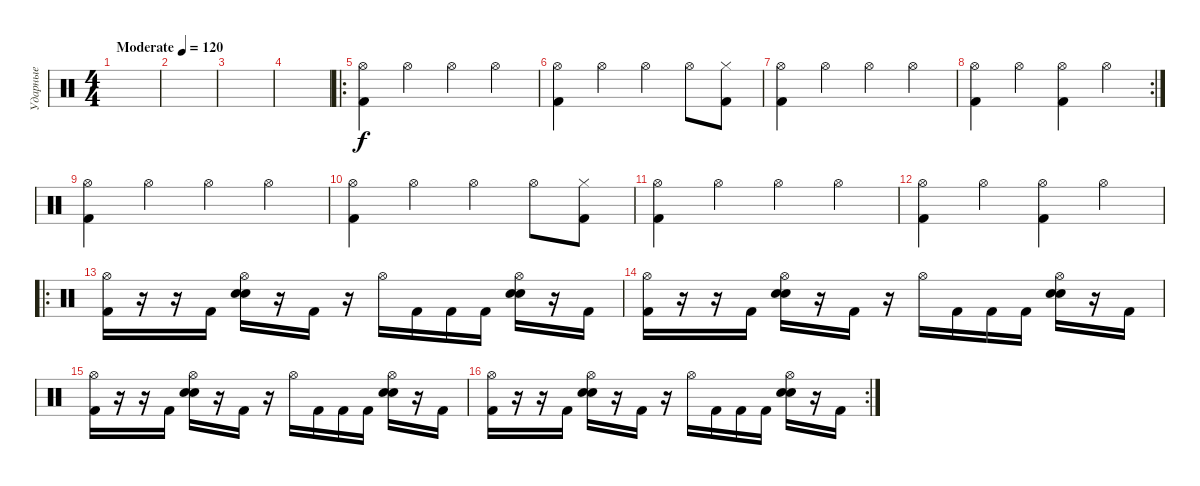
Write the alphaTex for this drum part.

\track ("Ударные" "Ударные") {instrument percussion}
\staff {score}
\articulation defaults
\ts (4 4)
\tempo (120 "Moderate")
\clef neutral
\ks c
|
|
|
|
\ro
("Hi-Hat (open)" "Kick (hit) 2").4 "Hi-Hat (open)".4 "Hi-Hat (open)".4 "Hi-Hat (open)".4 |
("Hi-Hat (open)" "Kick (hit) 2").4 "Hi-Hat (open)".4 "Hi-Hat (open)".4 "Hi-Hat (open)".8 ("Hi-Hat (closed)" "Kick (hit) 2").8 |
("Hi-Hat (open)" "Kick (hit) 2").4 "Hi-Hat (open)".4 "Hi-Hat (open)".4 "Hi-Hat (open)".4 |
\rc 2
("Hi-Hat (open)" "Kick (hit) 2").4 "Hi-Hat (open)".4 ("Hi-Hat (open)" "Kick (hit) 2").4 "Hi-Hat (open)".4 |
("Hi-Hat (open)" "Kick (hit) 2").4 "Hi-Hat (open)".4 "Hi-Hat (open)".4 "Hi-Hat (open)".4 |
("Hi-Hat (open)" "Kick (hit) 2").4 "Hi-Hat (open)".4 "Hi-Hat (open)".4 "Hi-Hat (open)".8 ("Hi-Hat (closed)" "Kick (hit) 2").8 |
("Hi-Hat (open)" "Kick (hit) 2").4 "Hi-Hat (open)".4 "Hi-Hat (open)".4 "Hi-Hat (open)".4 |
("Hi-Hat (open)" "Kick (hit) 2").4 "Hi-Hat (open)".4 ("Hi-Hat (open)" "Kick (hit) 2").4 "Hi-Hat (open)".4 |
\ro
("Hi-Hat (open)" "Kick (hit) 2").16 r.16 r.16 "Kick (hit) 2".16 ("Hi-Hat (open)" "Electric Snare (hit)" "Snare (hit) 2").16 r.16 "Kick (hit) 2".16 r.16 "Hi-Hat (open)".16 "Kick (hit) 2".16 "Kick (hit) 2".16 "Kick (hit) 2".16 ("Hi-Hat (open)" "Electric Snare (hit)" "Snare (hit) 2").16 r.16 "Kick (hit) 2".16 |
("Hi-Hat (open)" "Kick (hit) 2").16 r.16 r.16 "Kick (hit) 2".16 ("Hi-Hat (open)" "Electric Snare (hit)" "Snare (hit) 2").16 r.16 "Kick (hit) 2".16 r.16 "Hi-Hat (open)".16 "Kick (hit) 2".16 "Kick (hit) 2".16 "Kick (hit) 2".16 ("Hi-Hat (open)" "Electric Snare (hit)" "Snare (hit) 2").16 r.16 "Kick (hit) 2".16 |
("Hi-Hat (open)" "Kick (hit) 2").16 r.16 r.16 "Kick (hit) 2".16 ("Hi-Hat (open)" "Electric Snare (hit)" "Snare (hit) 2").16 r.16 "Kick (hit) 2".16 r.16 "Hi-Hat (open)".16 "Kick (hit) 2".16 "Kick (hit) 2".16 "Kick (hit) 2".16 ("Hi-Hat (open)" "Electric Snare (hit)" "Snare (hit) 2").16 r.16 "Kick (hit) 2".16 |
\rc 2
("Hi-Hat (open)" "Kick (hit) 2").16 r.16 r.16 "Kick (hit) 2".16 ("Hi-Hat (open)" "Electric Snare (hit)" "Snare (hit) 2").16 r.16 "Kick (hit) 2".16 r.16 "Hi-Hat (open)".16 "Kick (hit) 2".16 "Kick (hit) 2".16 "Kick (hit) 2".16 ("Hi-Hat (open)" "Electric Snare (hit)" "Snare (hit) 2").16 r.16 "Kick (hit) 2".16
